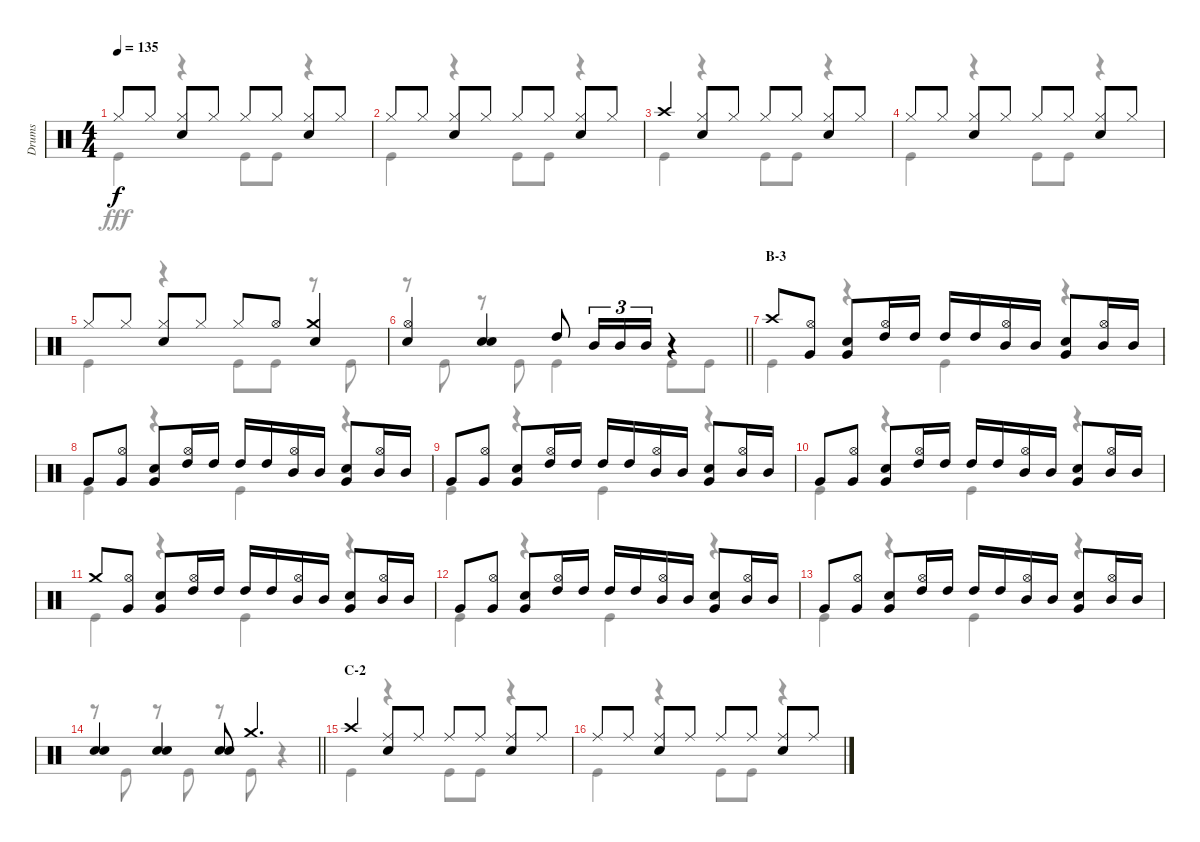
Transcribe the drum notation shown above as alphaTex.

\track ("Drums" "Drums") {instrument percussion}
\staff {score}
\articulation defaults
\voice
\ts (4 4)
\tempo 135
\clef neutral
\ks c "Hi-Hat (closed)".8{dy f} "Hi-Hat (closed)".8
("Hi-Hat (closed)" "Snare (hit) 2").8 "Hi-Hat (closed)".8 "Hi-Hat (closed)".8 "Hi-Hat (closed)".8 ("Hi-Hat (closed)" "Snare (hit) 2").8 "Hi-Hat (closed)".8 |
"Hi-Hat (closed)".8 "Hi-Hat (closed)".8 ("Hi-Hat (closed)" "Snare (hit) 2").8 "Hi-Hat (closed)".8 "Hi-Hat (closed)".8 "Hi-Hat (closed)".8 ("Hi-Hat (closed)" "Snare (hit) 2").8 "Hi-Hat (closed)".8 |
"Crash high (hit)".4 ("Hi-Hat (closed)" "Snare (hit) 2").8 "Hi-Hat (closed)".8 "Hi-Hat (closed)".8 "Hi-Hat (closed)".8 ("Hi-Hat (closed)" "Snare (hit) 2").8 "Hi-Hat (closed)".8 |
"Hi-Hat (closed)".8 "Hi-Hat (closed)".8 ("Hi-Hat (closed)" "Snare (hit) 2").8 "Hi-Hat (closed)".8 "Hi-Hat (closed)".8 "Hi-Hat (closed)".8 ("Hi-Hat (closed)" "Snare (hit) 2").8 "Hi-Hat (closed)".8 |
"Hi-Hat (closed)".8 "Hi-Hat (closed)".8 ("Hi-Hat (closed)" "Snare (hit) 2").8 "Hi-Hat (closed)".8 "Hi-Hat (closed)".8 "Hi-Hat (open)".8 ("Crash medium (hit)" "Snare (hit) 2").4 |
\barLineRight lightlight
("Hi-Hat (open)" "Snare (hit) 2").4 ("Snare (hit) 2" "Snare (hit) 2").4 "High Tom (hit)".8 "Mid Tom (hit)".16{tu (3 2)} "Mid Tom (hit)".16{tu (3 2)} "Mid Tom (hit)".16{tu (3 2)} r.4 |
\section ("" "B-3")
"Crash high (hit)".8 ("Hi-Hat (open)" "Very Low Tom (hit)").8 ("Snare (hit) 2" "Very Low Tom (hit)").8 ("Hi-Hat (open)" "High Tom (hit)").16 "High Tom (hit)".16 "High Tom (hit)".16 "High Tom (hit)".16 ("Hi-Hat (open)" "Mid Tom (hit)").16 "Mid Tom (hit)".16 ("Snare (hit) 2" "Very Low Tom (hit)").8 ("Hi-Hat (open)" "Mid Tom (hit)").16 "Mid Tom (hit)".16 |
"Very Low Tom (hit)".8 ("Hi-Hat (open)" "Very Low Tom (hit)").8 ("Snare (hit) 2" "Very Low Tom (hit)").8 ("Hi-Hat (open)" "High Tom (hit)").16 "High Tom (hit)".16 "High Tom (hit)".16 "High Tom (hit)".16 ("Hi-Hat (open)" "Mid Tom (hit)").16 "Mid Tom (hit)".16 ("Snare (hit) 2" "Very Low Tom (hit)").8 ("Hi-Hat (open)" "Mid Tom (hit)").16 "Mid Tom (hit)".16 |
"Very Low Tom (hit)".8 ("Hi-Hat (open)" "Very Low Tom (hit)").8 ("Snare (hit) 2" "Very Low Tom (hit)").8 ("Hi-Hat (open)" "High Tom (hit)").16 "High Tom (hit)".16 "High Tom (hit)".16 "High Tom (hit)".16 ("Hi-Hat (open)" "Mid Tom (hit)").16 "Mid Tom (hit)".16 ("Snare (hit) 2" "Very Low Tom (hit)").8 ("Hi-Hat (open)" "Mid Tom (hit)").16 "Mid Tom (hit)".16 |
"Very Low Tom (hit)".8 ("Hi-Hat (open)" "Very Low Tom (hit)").8 ("Snare (hit) 2" "Very Low Tom (hit)").8 ("Hi-Hat (open)" "High Tom (hit)").16 "High Tom (hit)".16 "High Tom (hit)".16 "High Tom (hit)".16 ("Hi-Hat (open)" "Mid Tom (hit)").16 "Mid Tom (hit)".16 ("Snare (hit) 2" "Very Low Tom (hit)").8 ("Hi-Hat (open)" "Mid Tom (hit)").16 "Mid Tom (hit)".16 |
"Crash medium (hit)".8 ("Hi-Hat (open)" "Very Low Tom (hit)").8 ("Snare (hit) 2" "Very Low Tom (hit)").8 ("Hi-Hat (open)" "High Tom (hit)").16 "High Tom (hit)".16 "High Tom (hit)".16 "High Tom (hit)".16 ("Hi-Hat (open)" "Mid Tom (hit)").16 "Mid Tom (hit)".16 ("Snare (hit) 2" "Very Low Tom (hit)").8 ("Hi-Hat (open)" "Mid Tom (hit)").16 "Mid Tom (hit)".16 |
"Very Low Tom (hit)".8 ("Hi-Hat (open)" "Very Low Tom (hit)").8 ("Snare (hit) 2" "Very Low Tom (hit)").8 ("Hi-Hat (open)" "High Tom (hit)").16 "High Tom (hit)".16 "High Tom (hit)".16 "High Tom (hit)".16 ("Hi-Hat (open)" "Mid Tom (hit)").16 "Mid Tom (hit)".16 ("Snare (hit) 2" "Very Low Tom (hit)").8 ("Hi-Hat (open)" "Mid Tom (hit)").16 "Mid Tom (hit)".16 |
"Very Low Tom (hit)".8 ("Hi-Hat (open)" "Very Low Tom (hit)").8 ("Snare (hit) 2" "Very Low Tom (hit)").8 ("Hi-Hat (open)" "High Tom (hit)").16 "High Tom (hit)".16 "High Tom (hit)".16 "High Tom (hit)".16 ("Hi-Hat (open)" "Mid Tom (hit)").16 "Mid Tom (hit)".16 ("Snare (hit) 2" "Very Low Tom (hit)").8 ("Hi-Hat (open)" "Mid Tom (hit)").16 "Mid Tom (hit)".16 |
\barLineRight lightlight
("Snare (hit) 2" "Snare (hit) 2").4 ("Snare (hit) 2" "Snare (hit) 2").4 ("Snare (hit) 2" "Snare (hit) 2").8 "Crash medium (hit)".4{d} |
\section ("" "C-2")
"Crash high (hit)".4 ("Ride (middle)" "Snare (hit) 2").8 "Ride (middle)".8 "Ride (middle)".8 "Ride (middle)".8 ("Ride (middle)" "Snare (hit) 2").8 "Ride (middle)".8 |
"Ride (middle)".8 "Ride (middle)".8 ("Ride (middle)" "Snare (hit) 2").8 "Ride (middle)".8 "Ride (middle)".8 "Ride (middle)".8 ("Ride (middle)" "Snare (hit) 2").8 "Ride (middle)".8
\voice
\clef neutral
\ottava regular
\simile none
\ks c "Kick (hit)".4{dy fff}
r.4 "Kick (hit)".8 "Kick (hit)".8 r.4 |
"Kick (hit)".4 r.4 "Kick (hit)".8 "Kick (hit)".8 r.4 |
"Kick (hit)".4 r.4 "Kick (hit)".8 "Kick (hit)".8 r.4 |
"Kick (hit)".4 r.4 "Kick (hit)".8 "Kick (hit)".8 r.4 |
"Kick (hit)".4 r.4 "Kick (hit)".8 "Kick (hit)".8 r.8 "Kick (hit)".8 |
\barLineRight lightlight
r.8 "Kick (hit)".8 r.8 "Kick (hit)".8 "Kick (hit)".4 "Kick (hit)".8 "Kick (hit)".8 |
"Kick (hit)".4 r.4 "Kick (hit)".4 r.4 |
"Kick (hit)".4 r.4 "Kick (hit)".4 r.4 |
"Kick (hit)".4 r.4 "Kick (hit)".4 r.4 |
"Kick (hit)".4 r.4 "Kick (hit)".4 r.4 |
"Kick (hit)".4 r.4 "Kick (hit)".4 r.4 |
"Kick (hit)".4 r.4 "Kick (hit)".4 r.4 |
"Kick (hit)".4 r.4 "Kick (hit)".4 r.4 |
\barLineRight lightlight
r.8 "Kick (hit)".8 r.8 "Kick (hit)".8 r.8 "Kick (hit)".8 r.4 |
"Kick (hit)".4 r.4 "Kick (hit)".8 "Kick (hit)".8 r.4 |
"Kick (hit)".4 r.4 "Kick (hit)".8 "Kick (hit)".8 r.4
